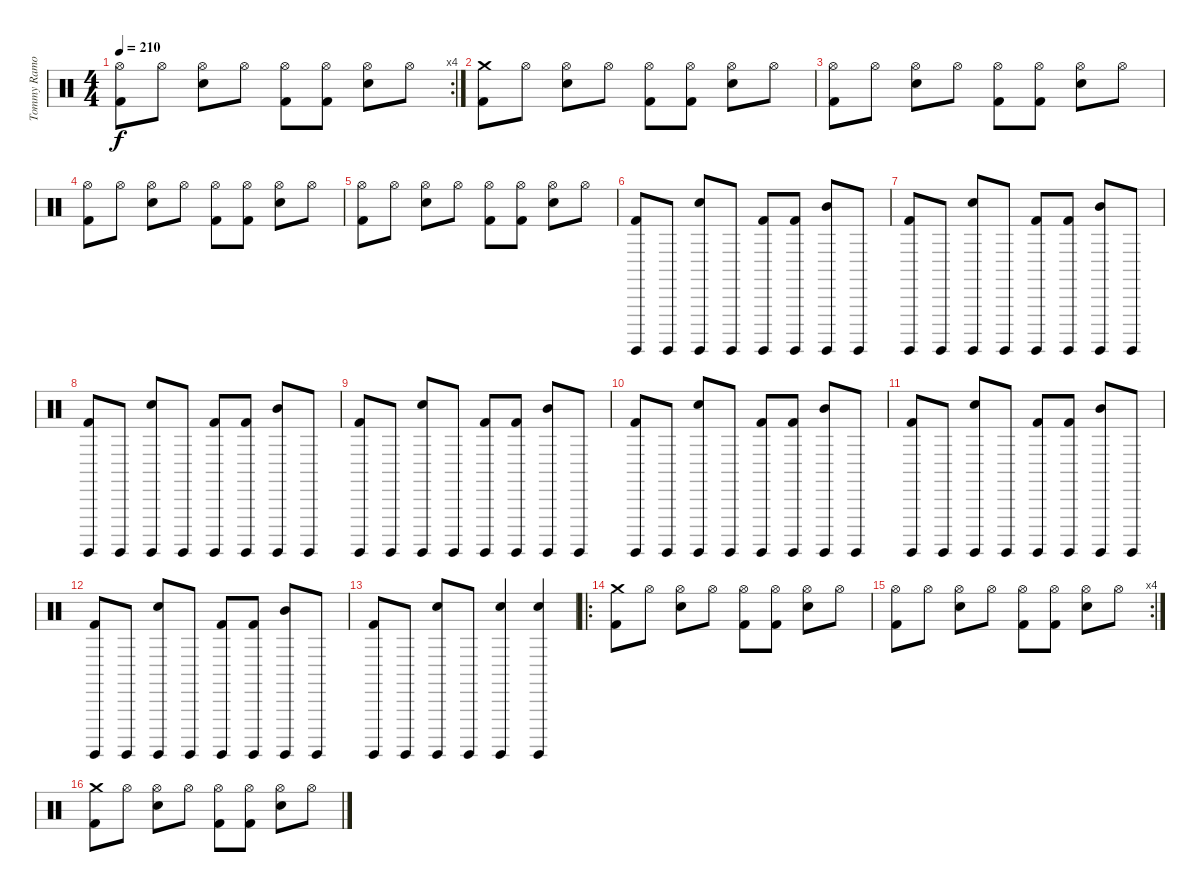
\track ("Tommy Ramone" "Tommy Ramo") {instrument percussion}
\staff {score}
\articulation defaults
\rc 4
\ts (4 4)
\tempo 210
\clef neutral
\ks c
("Hi-Hat (open)" "Kick (hit) 2").8{dy f} "Hi-Hat (open)".8 ("Hi-Hat (open)" "Snare (hit) 2").8 "Hi-Hat (open)".8 ("Hi-Hat (open)" "Kick (hit) 2").8 ("Hi-Hat (open)" "Kick (hit) 2").8 ("Hi-Hat (open)" "Snare (hit) 2").8 "Hi-Hat (open)".8 |
("Crash medium (hit)" "Kick (hit) 2").8 "Hi-Hat (open)".8 ("Hi-Hat (open)" "Snare (hit) 2").8 "Hi-Hat (open)".8 ("Hi-Hat (open)" "Kick (hit) 2").8 ("Hi-Hat (open)" "Kick (hit) 2").8 ("Hi-Hat (open)" "Snare (hit) 2").8 "Hi-Hat (open)".8 |
("Hi-Hat (open)" "Kick (hit) 2").8 "Hi-Hat (open)".8 ("Hi-Hat (open)" "Snare (hit) 2").8 "Hi-Hat (open)".8 ("Hi-Hat (open)" "Kick (hit) 2").8 ("Hi-Hat (open)" "Kick (hit) 2").8 ("Hi-Hat (open)" "Snare (hit) 2").8 "Hi-Hat (open)".8 |
("Hi-Hat (open)" "Kick (hit) 2").8 "Hi-Hat (open)".8 ("Hi-Hat (open)" "Snare (hit) 2").8 "Hi-Hat (open)".8 ("Hi-Hat (open)" "Kick (hit) 2").8 ("Hi-Hat (open)" "Kick (hit) 2").8 ("Hi-Hat (open)" "Snare (hit) 2").8 "Hi-Hat (open)".8 |
("Hi-Hat (open)" "Kick (hit) 2").8 "Hi-Hat (open)".8 ("Hi-Hat (open)" "Snare (hit) 2").8 "Hi-Hat (open)".8 ("Hi-Hat (open)" "Kick (hit) 2").8 ("Hi-Hat (open)" "Kick (hit) 2").8 ("Hi-Hat (open)" "Snare (hit) 2").8 "Hi-Hat (open)".8 |
("Surdo (hit)" "Kick (hit) 2").8 "Surdo (hit)".8 ("Surdo (hit)" "Snare (hit) 2").8 "Surdo (hit)".8 ("Surdo (hit)" "Kick (hit) 2").8 ("Surdo (hit)" "Kick (hit) 2").8 ("Surdo (hit)" "Mid Tom (hit)").8 "Surdo (hit)".8 |
("Surdo (hit)" "Kick (hit) 2").8 "Surdo (hit)".8 ("Surdo (hit)" "Snare (hit) 2").8 "Surdo (hit)".8 ("Surdo (hit)" "Kick (hit) 2").8 ("Surdo (hit)" "Kick (hit) 2").8 ("Surdo (hit)" "Mid Tom (hit)").8 "Surdo (hit)".8 |
("Surdo (hit)" "Kick (hit) 2").8 "Surdo (hit)".8 ("Surdo (hit)" "Snare (hit) 2").8 "Surdo (hit)".8 ("Surdo (hit)" "Kick (hit) 2").8 ("Surdo (hit)" "Kick (hit) 2").8 ("Surdo (hit)" "Mid Tom (hit)").8 "Surdo (hit)".8 |
("Surdo (hit)" "Kick (hit) 2").8 "Surdo (hit)".8 ("Surdo (hit)" "Snare (hit) 2").8 "Surdo (hit)".8 ("Surdo (hit)" "Kick (hit) 2").8 ("Surdo (hit)" "Kick (hit) 2").8 ("Surdo (hit)" "Mid Tom (hit)").8 "Surdo (hit)".8 |
("Surdo (hit)" "Kick (hit) 2").8 "Surdo (hit)".8 ("Surdo (hit)" "Snare (hit) 2").8 "Surdo (hit)".8 ("Surdo (hit)" "Kick (hit) 2").8 ("Surdo (hit)" "Kick (hit) 2").8 ("Surdo (hit)" "Mid Tom (hit)").8 "Surdo (hit)".8 |
("Surdo (hit)" "Kick (hit) 2").8 "Surdo (hit)".8 ("Surdo (hit)" "Snare (hit) 2").8 "Surdo (hit)".8 ("Surdo (hit)" "Kick (hit) 2").8 ("Surdo (hit)" "Kick (hit) 2").8 ("Surdo (hit)" "Mid Tom (hit)").8 "Surdo (hit)".8 |
("Surdo (hit)" "Kick (hit) 2").8 "Surdo (hit)".8 ("Surdo (hit)" "Snare (hit) 2").8 "Surdo (hit)".8 ("Surdo (hit)" "Kick (hit) 2").8 ("Surdo (hit)" "Kick (hit) 2").8 ("Surdo (hit)" "Mid Tom (hit)").8 "Surdo (hit)".8 |
("Surdo (hit)" "Kick (hit) 2").8 "Surdo (hit)".8 ("Surdo (hit)" "Snare (hit) 2").8 "Surdo (hit)".8 ("Surdo (hit)" "Snare (hit) 2").4{bd 120} ("Surdo (hit)" "Snare (hit) 2").4{bd 120} |
\ro
("Crash medium (hit)" "Kick (hit) 2").8 "Hi-Hat (open)".8 ("Hi-Hat (open)" "Snare (hit) 2").8 "Hi-Hat (open)".8 ("Hi-Hat (open)" "Kick (hit) 2").8 ("Hi-Hat (open)" "Kick (hit) 2").8 ("Hi-Hat (open)" "Snare (hit) 2").8 "Hi-Hat (open)".8 |
\rc 4
("Hi-Hat (open)" "Kick (hit) 2").8 "Hi-Hat (open)".8 ("Hi-Hat (open)" "Snare (hit) 2").8 "Hi-Hat (open)".8 ("Hi-Hat (open)" "Kick (hit) 2").8 ("Hi-Hat (open)" "Kick (hit) 2").8 ("Hi-Hat (open)" "Snare (hit) 2").8 "Hi-Hat (open)".8 |
("Crash medium (hit)" "Kick (hit) 2").8 "Hi-Hat (open)".8 ("Hi-Hat (open)" "Snare (hit) 2").8 "Hi-Hat (open)".8 ("Hi-Hat (open)" "Kick (hit) 2").8 ("Hi-Hat (open)" "Kick (hit) 2").8 ("Hi-Hat (open)" "Snare (hit) 2").8 "Hi-Hat (open)".8
